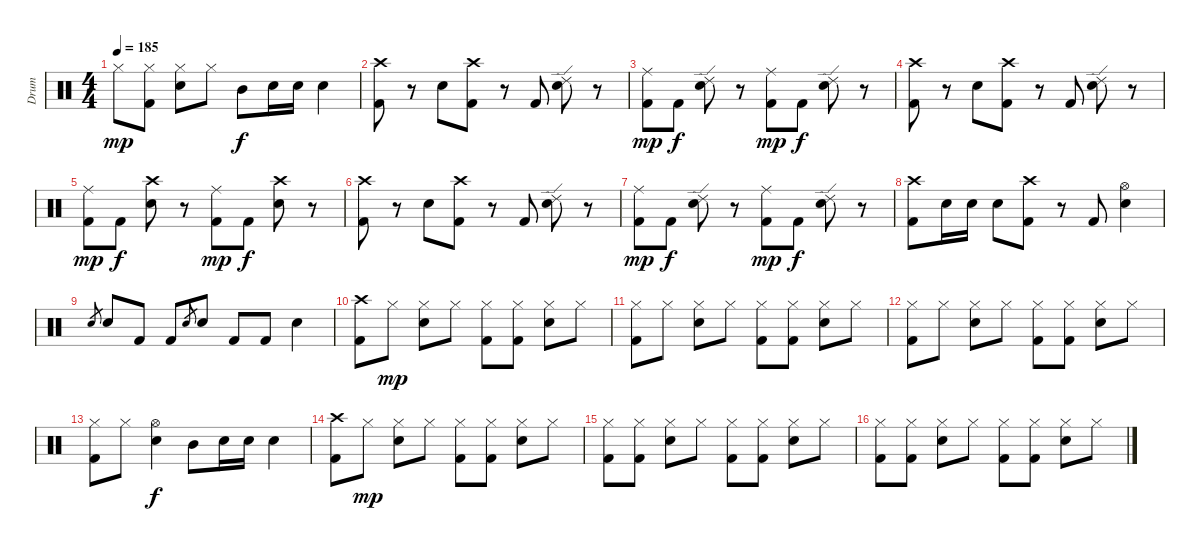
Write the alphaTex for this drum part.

\track ("Drum" "Drum") {instrument percussion}
\staff {score}
\articulation defaults
\ts (4 4)
\tempo 185
\clef neutral
\ks c "Hi-Hat (closed)".8{dy mp}
("Hi-Hat (closed)" "Kick (hit) 2").8 ("Hi-Hat (closed)" "Electric Snare (hit)").8 "Hi-Hat (closed)".8 "Mid Tom (hit)".8{dy f} "Electric Snare (hit)".16 "Electric Snare (hit)".16 "Electric Snare (hit)".4 |
("Crash high (hit)" "Kick (hit) 2").8 r.8 "Electric Snare (hit)".8 ("Kick (hit) 2" "Crash high (hit)").8 r.8 "Kick (hit) 2".8 ("Ride (edge) 2" "Electric Snare (hit)").8 r.8 |
("Ride (middle)" "Kick (hit) 2").8{dy mp} "Kick (hit) 2".8{dy f} ("Ride (edge) 2" "Electric Snare (hit)").8 r.8 ("Ride (middle)" "Kick (hit) 2").8{dy mp} "Kick (hit) 2".8{dy f} ("Ride (edge) 2" "Electric Snare (hit)").8 r.8 |
("Crash high (hit)" "Kick (hit) 2").8 r.8 "Electric Snare (hit)".8 ("Kick (hit) 2" "Crash high (hit)").8 r.8 "Kick (hit) 2".8 ("Ride (edge) 2" "Electric Snare (hit)").8 r.8 |
("Ride (middle)" "Kick (hit) 2").8{dy mp} "Kick (hit) 2".8{dy f} ("Crash high (hit)" "Electric Snare (hit)").8 r.8 ("Ride (middle)" "Kick (hit) 2").8{dy mp} "Kick (hit) 2".8{dy f} ("Crash high (hit)" "Electric Snare (hit)").8 r.8 |
("Crash high (hit)" "Kick (hit) 2").8 r.8 "Electric Snare (hit)".8 ("Kick (hit) 2" "Crash high (hit)").8 r.8 "Kick (hit) 2".8 ("Ride (edge) 2" "Electric Snare (hit)").8 r.8 |
("Ride (middle)" "Kick (hit) 2").8{dy mp} "Kick (hit) 2".8{dy f} ("Ride (edge) 2" "Electric Snare (hit)").8 r.8 ("Ride (middle)" "Kick (hit) 2").8{dy mp} "Kick (hit) 2".8{dy f} ("Ride (edge) 2" "Electric Snare (hit)").8 r.8 |
("Kick (hit) 2" "Crash high (hit)").8 "Electric Snare (hit)".16 "Electric Snare (hit)".16 "Electric Snare (hit)".8 ("Kick (hit) 2" "Crash high (hit)").8 r.8 "Kick (hit) 2".8 ("Electric Snare (hit)" "Hi-Hat (open)").4 |
"Electric Snare (hit)".8{gr} "Electric Snare (hit)".8 "Kick (hit) 2".8 "Kick (hit) 2".8 "Electric Snare (hit)".8{gr} "Electric Snare (hit)".8 "Kick (hit) 2".8 "Kick (hit) 2".8 "Electric Snare (hit)".4 |
("Crash high (hit)" "Kick (hit) 2").8 "Hi-Hat (closed)".8{dy mp} ("Hi-Hat (closed)" "Electric Snare (hit)").8 "Hi-Hat (closed)".8 ("Hi-Hat (closed)" "Kick (hit) 2").8 ("Hi-Hat (closed)" "Kick (hit) 2").8 ("Hi-Hat (closed)" "Electric Snare (hit)").8 "Hi-Hat (closed)".8 |
("Kick (hit) 2" "Hi-Hat (closed)").8 "Hi-Hat (closed)".8 ("Hi-Hat (closed)" "Electric Snare (hit)").8 "Hi-Hat (closed)".8 ("Hi-Hat (closed)" "Kick (hit) 2").8 ("Hi-Hat (closed)" "Kick (hit) 2").8 ("Hi-Hat (closed)" "Electric Snare (hit)").8 "Hi-Hat (closed)".8 |
("Kick (hit) 2" "Hi-Hat (closed)").8 "Hi-Hat (closed)".8 ("Hi-Hat (closed)" "Electric Snare (hit)").8 "Hi-Hat (closed)".8 ("Hi-Hat (closed)" "Kick (hit) 2").8 ("Hi-Hat (closed)" "Kick (hit) 2").8 ("Hi-Hat (closed)" "Electric Snare (hit)").8 "Hi-Hat (closed)".8 |
("Hi-Hat (closed)" "Kick (hit) 2").8 "Hi-Hat (closed)".8 ("Electric Snare (hit)" "Hi-Hat (open)").4{dy f} "Mid Tom (hit)".8 "Electric Snare (hit)".16 "Electric Snare (hit)".16 "Electric Snare (hit)".4 |
("Crash high (hit)" "Kick (hit) 2").8 "Hi-Hat (closed)".8{dy mp} ("Hi-Hat (closed)" "Electric Snare (hit)").8 "Hi-Hat (closed)".8 ("Hi-Hat (closed)" "Kick (hit) 2").8 ("Hi-Hat (closed)" "Kick (hit) 2").8 ("Hi-Hat (closed)" "Electric Snare (hit)").8 "Hi-Hat (closed)".8 |
("Hi-Hat (closed)" "Kick (hit) 2").8 ("Hi-Hat (closed)" "Kick (hit) 2").8 ("Hi-Hat (closed)" "Electric Snare (hit)").8 "Hi-Hat (closed)".8 ("Hi-Hat (closed)" "Kick (hit) 2").8 ("Hi-Hat (closed)" "Kick (hit) 2").8 ("Hi-Hat (closed)" "Electric Snare (hit)").8 "Hi-Hat (closed)".8 |
("Hi-Hat (closed)" "Kick (hit) 2").8 ("Hi-Hat (closed)" "Kick (hit) 2").8 ("Hi-Hat (closed)" "Electric Snare (hit)").8 "Hi-Hat (closed)".8 ("Hi-Hat (closed)" "Kick (hit) 2").8 ("Hi-Hat (closed)" "Kick (hit) 2").8 ("Hi-Hat (closed)" "Electric Snare (hit)").8 "Hi-Hat (closed)".8
